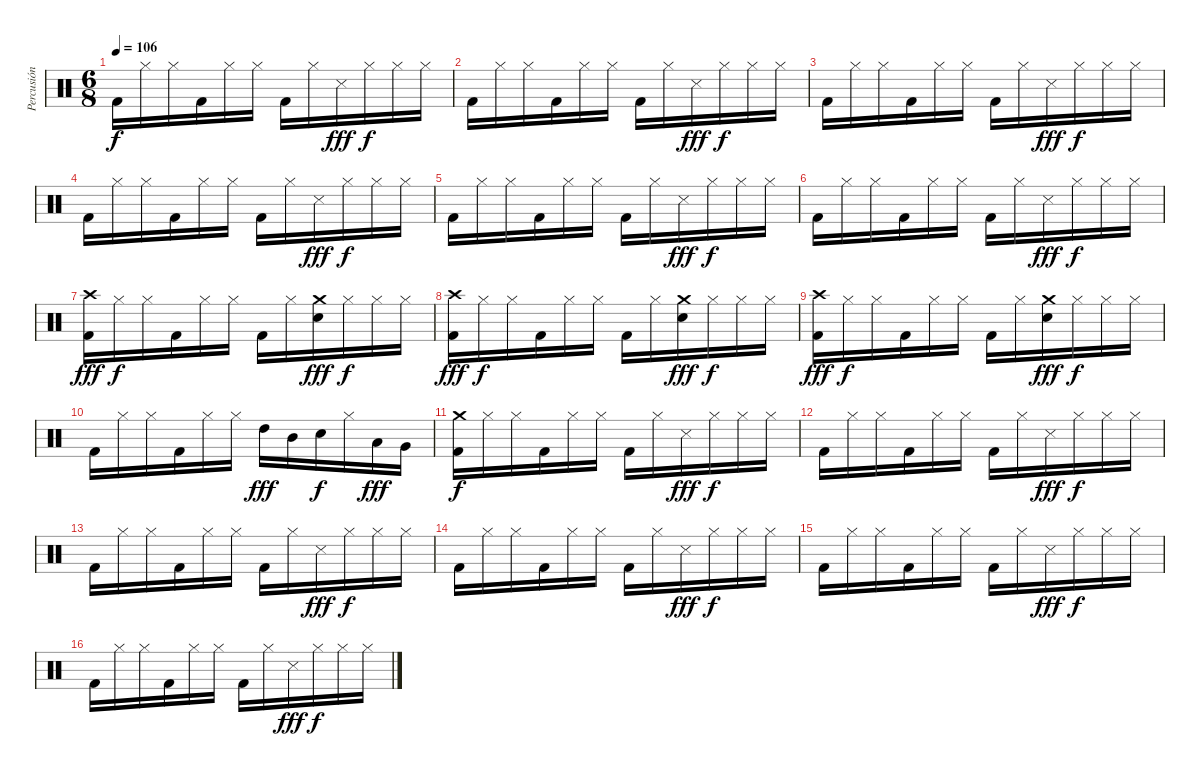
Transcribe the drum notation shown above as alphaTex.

\track ("Percusión" "Percusión") {instrument percussion}
\staff {score}
\articulation defaults
\ts (6 8)
\tempo 106
\clef neutral
\ks c "Kick (hit) 2".16{dy f} "Hi-Hat (closed)".16 "Hi-Hat (closed)".16 "Kick (hit) 2".16 "Hi-Hat (closed)".16 "Hi-Hat (closed)".16 "Kick (hit) 2".16 "Hi-Hat (closed)".16 "Snare (side stick) 3".16{dy fff} "Hi-Hat (closed)".16{dy f} "Hi-Hat (closed)".16 "Hi-Hat (closed)".16
|
"Kick (hit) 2".16 "Hi-Hat (closed)".16 "Hi-Hat (closed)".16 "Kick (hit) 2".16 "Hi-Hat (closed)".16 "Hi-Hat (closed)".16 "Kick (hit) 2".16 "Hi-Hat (closed)".16 "Snare (side stick) 3".16{dy fff} "Hi-Hat (closed)".16{dy f} "Hi-Hat (closed)".16 "Hi-Hat (closed)".16 |
"Kick (hit) 2".16 "Hi-Hat (closed)".16 "Hi-Hat (closed)".16 "Kick (hit) 2".16 "Hi-Hat (closed)".16 "Hi-Hat (closed)".16 "Kick (hit) 2".16 "Hi-Hat (closed)".16 "Snare (side stick) 3".16{dy fff} "Hi-Hat (closed)".16{dy f} "Hi-Hat (closed)".16 "Hi-Hat (closed)".16 |
"Kick (hit) 2".16 "Hi-Hat (closed)".16 "Hi-Hat (closed)".16 "Kick (hit) 2".16 "Hi-Hat (closed)".16 "Hi-Hat (closed)".16 "Kick (hit) 2".16 "Hi-Hat (closed)".16 "Snare (side stick) 3".16{dy fff} "Hi-Hat (closed)".16{dy f} "Hi-Hat (closed)".16 "Hi-Hat (closed)".16 |
"Kick (hit) 2".16 "Hi-Hat (closed)".16 "Hi-Hat (closed)".16 "Kick (hit) 2".16 "Hi-Hat (closed)".16 "Hi-Hat (closed)".16 "Kick (hit) 2".16 "Hi-Hat (closed)".16 "Snare (side stick) 3".16{dy fff} "Hi-Hat (closed)".16{dy f} "Hi-Hat (closed)".16 "Hi-Hat (closed)".16 |
"Kick (hit) 2".16 "Hi-Hat (closed)".16 "Hi-Hat (closed)".16 "Kick (hit) 2".16 "Hi-Hat (closed)".16 "Hi-Hat (closed)".16 "Kick (hit) 2".16 "Hi-Hat (closed)".16 "Snare (side stick) 3".16{dy fff} "Hi-Hat (closed)".16{dy f} "Hi-Hat (closed)".16 "Hi-Hat (closed)".16 |
("Kick (hit) 2" "Crash high (hit)").16{dy fff} "Hi-Hat (closed)".16{dy f} "Hi-Hat (closed)".16 "Kick (hit) 2".16 "Hi-Hat (closed)".16 "Hi-Hat (closed)".16 "Kick (hit) 2".16 "Hi-Hat (closed)".16 ("Snare (hit) 2" "Crash medium (hit)").16{dy fff} "Hi-Hat (closed)".16{dy f} "Hi-Hat (closed)".16 "Hi-Hat (closed)".16 |
("Kick (hit) 2" "Crash high (hit)").16{dy fff} "Hi-Hat (closed)".16{dy f} "Hi-Hat (closed)".16 "Kick (hit) 2".16 "Hi-Hat (closed)".16 "Hi-Hat (closed)".16 "Kick (hit) 2".16 "Hi-Hat (closed)".16 ("Snare (hit) 2" "Crash medium (hit)").16{dy fff} "Hi-Hat (closed)".16{dy f} "Hi-Hat (closed)".16 "Hi-Hat (closed)".16 |
("Kick (hit) 2" "Crash high (hit)").16{dy fff} "Hi-Hat (closed)".16{dy f} "Hi-Hat (closed)".16 "Kick (hit) 2".16 "Hi-Hat (closed)".16 "Hi-Hat (closed)".16 "Kick (hit) 2".16 "Hi-Hat (closed)".16 ("Snare (hit) 2" "Crash medium (hit)").16{dy fff} "Hi-Hat (closed)".16{dy f} "Hi-Hat (closed)".16 "Hi-Hat (closed)".16 |
"Kick (hit) 2".16 "Hi-Hat (closed)".16 "Hi-Hat (closed)".16 "Kick (hit) 2".16 "Hi-Hat (closed)".16 "Hi-Hat (closed)".16 "High Tom (hit)".16{dy fff} "Mid Tom (hit)".16 "Snare (hit) 2".16{dy f} "Hi-Hat (closed)".16 "Low Tom (hit)".16{dy fff} "Very Low Tom (hit)".16 |
("Kick (hit) 2" "Crash medium (hit)").16{dy f} "Hi-Hat (closed)".16 "Hi-Hat (closed)".16 "Kick (hit) 2".16 "Hi-Hat (closed)".16 "Hi-Hat (closed)".16 "Kick (hit) 2".16 "Hi-Hat (closed)".16 "Snare (side stick) 3".16{dy fff} "Hi-Hat (closed)".16{dy f} "Hi-Hat (closed)".16 "Hi-Hat (closed)".16 |
"Kick (hit) 2".16 "Hi-Hat (closed)".16 "Hi-Hat (closed)".16 "Kick (hit) 2".16 "Hi-Hat (closed)".16 "Hi-Hat (closed)".16 "Kick (hit) 2".16 "Hi-Hat (closed)".16 "Snare (side stick) 3".16{dy fff} "Hi-Hat (closed)".16{dy f} "Hi-Hat (closed)".16 "Hi-Hat (closed)".16 |
"Kick (hit) 2".16 "Hi-Hat (closed)".16 "Hi-Hat (closed)".16 "Kick (hit) 2".16 "Hi-Hat (closed)".16 "Hi-Hat (closed)".16 "Kick (hit) 2".16 "Hi-Hat (closed)".16 "Snare (side stick) 3".16{dy fff} "Hi-Hat (closed)".16{dy f} "Hi-Hat (closed)".16 "Hi-Hat (closed)".16 |
"Kick (hit) 2".16 "Hi-Hat (closed)".16 "Hi-Hat (closed)".16 "Kick (hit) 2".16 "Hi-Hat (closed)".16 "Hi-Hat (closed)".16 "Kick (hit) 2".16 "Hi-Hat (closed)".16 "Snare (side stick) 3".16{dy fff} "Hi-Hat (closed)".16{dy f} "Hi-Hat (closed)".16 "Hi-Hat (closed)".16 |
"Kick (hit) 2".16 "Hi-Hat (closed)".16 "Hi-Hat (closed)".16 "Kick (hit) 2".16 "Hi-Hat (closed)".16 "Hi-Hat (closed)".16 "Kick (hit) 2".16 "Hi-Hat (closed)".16 "Snare (side stick) 3".16{dy fff} "Hi-Hat (closed)".16{dy f} "Hi-Hat (closed)".16 "Hi-Hat (closed)".16 |
"Kick (hit) 2".16 "Hi-Hat (closed)".16 "Hi-Hat (closed)".16 "Kick (hit) 2".16 "Hi-Hat (closed)".16 "Hi-Hat (closed)".16 "Kick (hit) 2".16 "Hi-Hat (closed)".16 "Snare (side stick) 3".16{dy fff} "Hi-Hat (closed)".16{dy f} "Hi-Hat (closed)".16 "Hi-Hat (closed)".16
